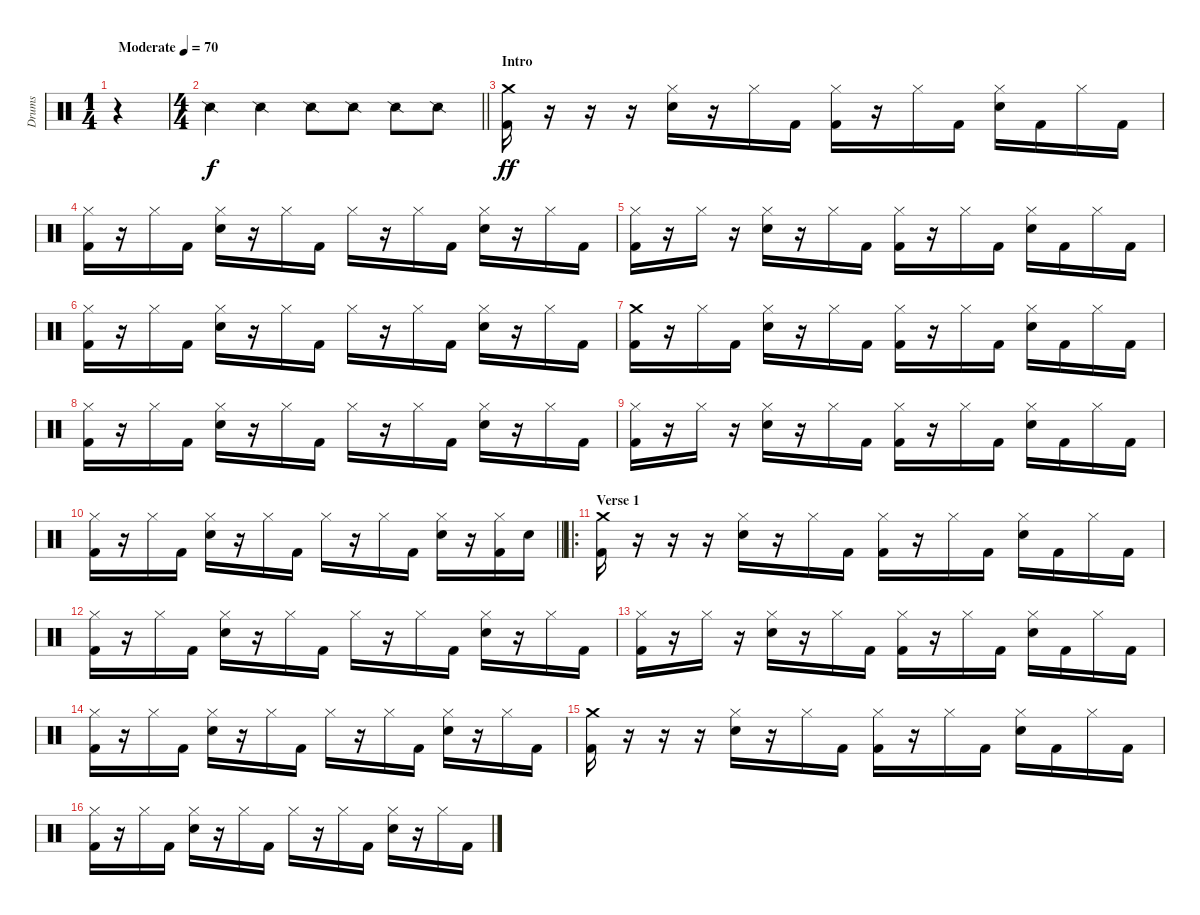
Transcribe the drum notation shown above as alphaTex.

\track ("Drums" "Drums") {instrument percussion}
\staff {score}
\articulation defaults
\voice
\ts (1 4)
\tempo (70 "Moderate")
\clef neutral
\ks c
r.4{dy f} |
\ts (4 4)
\barLineRight lightlight "Snare (side stick) 2".4 "Snare (side stick) 2".4 "Snare (side stick) 2".8 "Snare (side stick) 2".8 "Snare (side stick) 2".8 "Snare (side stick) 2".8
|
\section ("" "Intro")
("Crash medium (hit)" "Kick (hit) 2").16{dy ff} r.16 r.16 r.16 ("Hi-Hat (closed)" "Snare (hit) 2").16 r.16 "Hi-Hat (closed)".16 "Kick (hit) 2".16 ("Hi-Hat (closed)" "Kick (hit) 2").16 r.16 "Hi-Hat (closed)".16 "Kick (hit) 2".16 ("Hi-Hat (closed)" "Snare (hit) 2").16 "Kick (hit) 2".16 "Hi-Hat (closed)".16 "Kick (hit) 2".16 |
("Hi-Hat (closed)" "Kick (hit) 2").16 r.16 "Hi-Hat (closed)".16 "Kick (hit) 2".16 ("Hi-Hat (closed)" "Snare (hit) 2").16 r.16 "Hi-Hat (closed)".16 "Kick (hit) 2".16 "Hi-Hat (closed)".16 r.16 "Hi-Hat (closed)".16 "Kick (hit) 2".16 ("Hi-Hat (closed)" "Snare (hit) 2").16 r.16 "Hi-Hat (closed)".16 "Kick (hit) 2".16 |
("Hi-Hat (closed)" "Kick (hit) 2").16 r.16 "Hi-Hat (closed)".16 r.16 ("Hi-Hat (closed)" "Snare (hit) 2").16 r.16 "Hi-Hat (closed)".16 "Kick (hit) 2".16 ("Hi-Hat (closed)" "Kick (hit) 2").16 r.16 "Hi-Hat (closed)".16 "Kick (hit) 2".16 ("Hi-Hat (closed)" "Snare (hit) 2").16 "Kick (hit) 2".16 "Hi-Hat (closed)".16 "Kick (hit) 2".16 |
("Hi-Hat (closed)" "Kick (hit) 2").16 r.16 "Hi-Hat (closed)".16 "Kick (hit) 2".16 ("Hi-Hat (closed)" "Snare (hit) 2").16 r.16 "Hi-Hat (closed)".16 "Kick (hit) 2".16 "Hi-Hat (closed)".16 r.16 "Hi-Hat (closed)".16 "Kick (hit) 2".16 ("Hi-Hat (closed)" "Snare (hit) 2").16 r.16 "Hi-Hat (closed)".16 "Kick (hit) 2".16 |
("Crash medium (hit)" "Kick (hit) 2").16 r.16 "Hi-Hat (closed)".16 "Kick (hit) 2".16 ("Hi-Hat (closed)" "Snare (hit) 2").16 r.16 "Hi-Hat (closed)".16 "Kick (hit) 2".16 ("Hi-Hat (closed)" "Kick (hit) 2").16 r.16 "Hi-Hat (closed)".16 "Kick (hit) 2".16 ("Hi-Hat (closed)" "Snare (hit) 2").16 "Kick (hit) 2".16 "Hi-Hat (closed)".16 "Kick (hit) 2".16 |
("Hi-Hat (closed)" "Kick (hit) 2").16 r.16 "Hi-Hat (closed)".16 "Kick (hit) 2".16 ("Hi-Hat (closed)" "Snare (hit) 2").16 r.16 "Hi-Hat (closed)".16 "Kick (hit) 2".16 "Hi-Hat (closed)".16 r.16 "Hi-Hat (closed)".16 "Kick (hit) 2".16 ("Hi-Hat (closed)" "Snare (hit) 2").16 r.16 "Hi-Hat (closed)".16 "Kick (hit) 2".16 |
("Hi-Hat (closed)" "Kick (hit) 2").16 r.16 "Hi-Hat (closed)".16 r.16 ("Hi-Hat (closed)" "Snare (hit) 2").16 r.16 "Hi-Hat (closed)".16 "Kick (hit) 2".16 ("Hi-Hat (closed)" "Kick (hit) 2").16 r.16 "Hi-Hat (closed)".16 "Kick (hit) 2".16 ("Hi-Hat (closed)" "Snare (hit) 2").16 "Kick (hit) 2".16 "Hi-Hat (closed)".16 "Kick (hit) 2".16 |
\barLineRight lightlight
("Hi-Hat (closed)" "Kick (hit) 2").16 r.16 "Hi-Hat (closed)".16 "Kick (hit) 2".16 ("Hi-Hat (closed)" "Snare (hit) 2").16 r.16 "Hi-Hat (closed)".16 "Kick (hit) 2".16 "Hi-Hat (closed)".16 r.16 "Hi-Hat (closed)".16 "Kick (hit) 2".16 ("Hi-Hat (closed)" "Snare (hit) 2").16 r.16 ("Hi-Hat (closed)" "Kick (hit) 2").16 "Snare (hit) 2".16 |
\ro
\section ("" "Verse 1")
("Crash medium (hit)" "Kick (hit) 2").16 r.16 r.16 r.16 ("Hi-Hat (closed)" "Snare (hit) 2").16 r.16 "Hi-Hat (closed)".16 "Kick (hit) 2".16 ("Hi-Hat (closed)" "Kick (hit) 2").16 r.16 "Hi-Hat (closed)".16 "Kick (hit) 2".16 ("Hi-Hat (closed)" "Snare (hit) 2").16 "Kick (hit) 2".16 "Hi-Hat (closed)".16 "Kick (hit) 2".16 |
("Hi-Hat (closed)" "Kick (hit) 2").16 r.16 "Hi-Hat (closed)".16 "Kick (hit) 2".16 ("Hi-Hat (closed)" "Snare (hit) 2").16 r.16 "Hi-Hat (closed)".16 "Kick (hit) 2".16 "Hi-Hat (closed)".16 r.16 "Hi-Hat (closed)".16 "Kick (hit) 2".16 ("Hi-Hat (closed)" "Snare (hit) 2").16 r.16 "Hi-Hat (closed)".16 "Kick (hit) 2".16 |
("Hi-Hat (closed)" "Kick (hit) 2").16 r.16 "Hi-Hat (closed)".16 r.16 ("Hi-Hat (closed)" "Snare (hit) 2").16 r.16 "Hi-Hat (closed)".16 "Kick (hit) 2".16 ("Hi-Hat (closed)" "Kick (hit) 2").16 r.16 "Hi-Hat (closed)".16 "Kick (hit) 2".16 ("Hi-Hat (closed)" "Snare (hit) 2").16 "Kick (hit) 2".16 "Hi-Hat (closed)".16 "Kick (hit) 2".16 |
("Hi-Hat (closed)" "Kick (hit) 2").16 r.16 "Hi-Hat (closed)".16 "Kick (hit) 2".16 ("Hi-Hat (closed)" "Snare (hit) 2").16 r.16 "Hi-Hat (closed)".16 "Kick (hit) 2".16 "Hi-Hat (closed)".16 r.16 "Hi-Hat (closed)".16 "Kick (hit) 2".16 ("Hi-Hat (closed)" "Snare (hit) 2").16 r.16 "Hi-Hat (closed)".16 "Kick (hit) 2".16 |
("Crash medium (hit)" "Kick (hit) 2").16 r.16 r.16 r.16 ("Hi-Hat (closed)" "Snare (hit) 2").16 r.16 "Hi-Hat (closed)".16 "Kick (hit) 2".16 ("Hi-Hat (closed)" "Kick (hit) 2").16 r.16 "Hi-Hat (closed)".16 "Kick (hit) 2".16 ("Hi-Hat (closed)" "Snare (hit) 2").16 "Kick (hit) 2".16 "Hi-Hat (closed)".16 "Kick (hit) 2".16 |
("Hi-Hat (closed)" "Kick (hit) 2").16 r.16 "Hi-Hat (closed)".16 "Kick (hit) 2".16 ("Hi-Hat (closed)" "Snare (hit) 2").16 r.16 "Hi-Hat (closed)".16 "Kick (hit) 2".16 "Hi-Hat (closed)".16 r.16 "Hi-Hat (closed)".16 "Kick (hit) 2".16 ("Hi-Hat (closed)" "Snare (hit) 2").16 r.16 "Hi-Hat (closed)".16 "Kick (hit) 2".16
\voice
\clef neutral
\ottava regular
\simile none
\ks c
r.4{dy f} |
\barLineRight lightlight
|
|
|
|
|
|
|
|
\barLineRight lightlight
|
|
|
|
|
|
